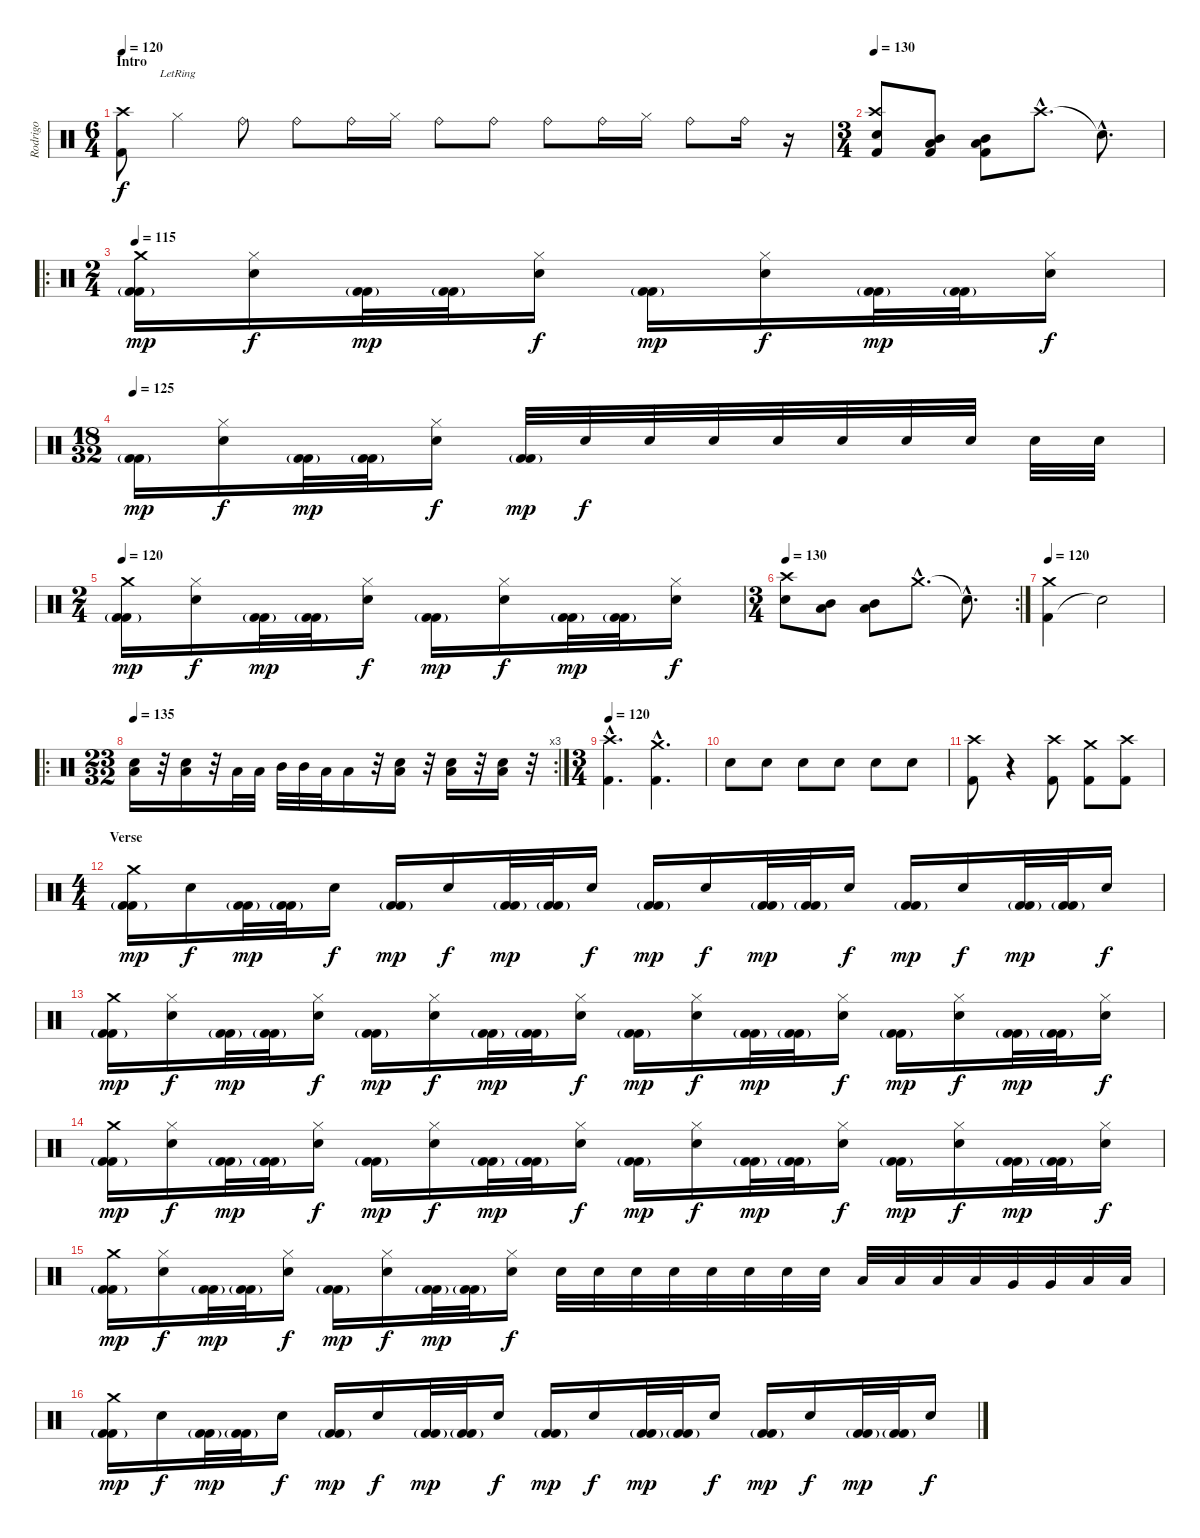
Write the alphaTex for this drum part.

\track ("Rodrigo" "Rodrigo") {instrument percussion}
\staff {score}
\articulation defaults
\ts (6 4)
\section ("" "Intro")
\tempo 120
\clef neutral
\ks c
("Kick (hit) 2" "Crash high (hit)").8{dy f} "Hi-Hat (closed)"{lr}.4 "Ride (bell)".8 "Ride (bell)".8 "Ride (bell)".16 "Hi-Hat (closed)".16 "Ride (bell)".8 "Ride (bell)".8 "Ride (bell)".8 "Ride (bell)".16 "Hi-Hat (closed)".16 "Ride (bell)".8 "Ride (bell)".16 r.16 |
\ts (3 4)
\tempo 130
("Snare (hit) 2" "Crash high (hit)" "Kick (hit) 2").8 ("Mid Tom (hit)" "Low Tom (hit)" "Kick (hit) 2").8 ("Mid Tom (hit)" "Low Tom (hit)" "Kick (hit) 2").8 "Crash high (hit)"{hac}.8{d} "Snare (hit)"{hac t}.8{d} |
\ro
\ts (2 4)
\tempo 115
("Crash medium (hit)" "Kick (hit) 2"{g} "Kick (hit) 2").16{dy mp} ("Hi-Hat (closed)" "Snare (hit) 2").16{dy f} ("Kick (hit) 2"{g} "Kick (hit) 2").32{dy mp} ("Kick (hit) 2"{g} "Kick (hit) 2").32 ("Hi-Hat (closed)" "Snare (hit) 2").16{dy f} ("Kick (hit) 2"{g} "Kick (hit) 2").16{dy mp} ("Hi-Hat (closed)" "Snare (hit) 2").16{dy f} ("Kick (hit) 2"{g} "Kick (hit) 2").32{dy mp} ("Kick (hit) 2"{g} "Kick (hit) 2").32 ("Hi-Hat (closed)" "Snare (hit) 2").16{dy f} |
\ts (18 32)
\tempo 125
("Kick (hit) 2"{g} "Kick (hit) 2").16{dy mp} ("Hi-Hat (closed)" "Snare (hit) 2").16{dy f} ("Kick (hit) 2"{g} "Kick (hit) 2").32{dy mp} ("Kick (hit) 2"{g} "Kick (hit) 2").32 ("Hi-Hat (closed)" "Snare (hit) 2").16{dy f} ("Kick (hit) 2"{g} "Kick (hit) 2").32{dy mp} "Snare (hit) 2".32{dy f} "Snare (hit) 2".32 "Snare (hit) 2".32 "Snare (hit) 2".32 "Snare (hit) 2".32 "Snare (hit) 2".32 "Snare (hit) 2".32 "Snare (hit) 2".32 "Snare (hit) 2".32 |
\ts (2 4)
\tempo 120
("Crash medium (hit)" "Kick (hit) 2"{g} "Kick (hit) 2").16{dy mp} ("Hi-Hat (closed)" "Snare (hit) 2").16{dy f} ("Kick (hit) 2"{g} "Kick (hit) 2").32{dy mp} ("Kick (hit) 2"{g} "Kick (hit) 2").32 ("Hi-Hat (closed)" "Snare (hit) 2").16{dy f} ("Kick (hit) 2"{g} "Kick (hit) 2").16{dy mp} ("Hi-Hat (closed)" "Snare (hit) 2").16{dy f} ("Kick (hit) 2"{g} "Kick (hit) 2").32{dy mp} ("Kick (hit) 2"{g} "Kick (hit) 2").32 ("Hi-Hat (closed)" "Snare (hit) 2").16{dy f} |
\rc 2
\ts (3 4)
\tempo 130
("Snare (hit) 2" "Crash high (hit)").8 ("Mid Tom (hit)" "Low Tom (hit)").8 ("Mid Tom (hit)" "Low Tom (hit)").8 "Crash medium (hit)"{hac}.8{d} "Snare (hit)"{hac t}.8{d} |
\tempo 120
("Kick (hit) 2" "Crash medium (hit)").4 "Snare (hit)"{t}.2 |
\ro
\rc 3
\ts (23 32)
\tempo 135
("Low Floor Tom (hit)" "Snare (hit) 2").16 r.32 ("Low Floor Tom (hit)" "Snare (hit) 2").16 r.32 "Low Tom (hit)".32 "Low Tom (hit)".32 "Mid Tom (hit)".32 "Mid Tom (hit)".32 "Low Tom (hit)".32 "Low Tom (hit)".16 r.32 ("Low Floor Tom (hit)" "Snare (hit) 2").16 r.32 ("Low Floor Tom (hit)" "Snare (hit) 2").16 r.32 ("Low Floor Tom (hit)" "Snare (hit) 2").16 r.32 |
\ts (3 4)
\tempo 120
("Kick (hit) 2"{hac} "Crash high (hit)"{hac}).4{d} ("Kick (hit) 2"{hac} "Crash medium (hit)"{hac}).4{d} |
"Snare (hit) 2".8 "Snare (hit) 2".8 "Snare (hit) 2".8 "Snare (hit) 2".8 "Snare (hit) 2".8 "Snare (hit) 2".8 |
("Kick (hit) 2" "Crash high (hit)").8 r.4 ("Kick (hit) 2" "Crash high (hit)").8 ("Kick (hit) 2" "Crash medium (hit)").8 ("Kick (hit) 2" "Crash high (hit)").8 |
\ts (4 4)
\section ("" "Verse")
("Crash medium (hit)" "Kick (hit) 2"{g} "Kick (hit) 2").16{dy mp} "Snare (hit) 2".16{dy f} ("Kick (hit) 2"{g} "Kick (hit) 2").32{dy mp} ("Kick (hit) 2"{g} "Kick (hit) 2").32 "Snare (hit) 2".16{dy f} ("Kick (hit) 2"{g} "Kick (hit) 2").16{dy mp} "Snare (hit) 2".16{dy f} ("Kick (hit) 2"{g} "Kick (hit) 2").32{dy mp} ("Kick (hit) 2"{g} "Kick (hit) 2").32 "Snare (hit) 2".16{dy f} ("Kick (hit) 2"{g} "Kick (hit) 2").16{dy mp} "Snare (hit) 2".16{dy f} ("Kick (hit) 2"{g} "Kick (hit) 2").32{dy mp} ("Kick (hit) 2"{g} "Kick (hit) 2").32 "Snare (hit) 2".16{dy f} ("Kick (hit) 2"{g} "Kick (hit) 2").16{dy mp} "Snare (hit) 2".16{dy f} ("Kick (hit) 2"{g} "Kick (hit) 2").32{dy mp} ("Kick (hit) 2"{g} "Kick (hit) 2").32 "Snare (hit) 2".16{dy f} |
("Crash medium (hit)" "Kick (hit) 2"{g} "Kick (hit) 2").16{dy mp} ("Hi-Hat (closed)" "Snare (hit) 2").16{dy f} ("Kick (hit) 2"{g} "Kick (hit) 2").32{dy mp} ("Kick (hit) 2"{g} "Kick (hit) 2").32 ("Hi-Hat (closed)" "Snare (hit) 2").16{dy f} ("Kick (hit) 2"{g} "Kick (hit) 2").16{dy mp} ("Hi-Hat (closed)" "Snare (hit) 2").16{dy f} ("Kick (hit) 2"{g} "Kick (hit) 2").32{dy mp} ("Kick (hit) 2"{g} "Kick (hit) 2").32 ("Hi-Hat (closed)" "Snare (hit) 2").16{dy f} ("Kick (hit) 2"{g} "Kick (hit) 2").16{dy mp} ("Hi-Hat (closed)" "Snare (hit) 2").16{dy f} ("Kick (hit) 2"{g} "Kick (hit) 2").32{dy mp} ("Kick (hit) 2"{g} "Kick (hit) 2").32 ("Hi-Hat (closed)" "Snare (hit) 2").16{dy f} ("Kick (hit) 2"{g} "Kick (hit) 2").16{dy mp} ("Hi-Hat (closed)" "Snare (hit) 2").16{dy f} ("Kick (hit) 2"{g} "Kick (hit) 2").32{dy mp} ("Kick (hit) 2"{g} "Kick (hit) 2").32 ("Hi-Hat (closed)" "Snare (hit) 2").16{dy f} |
("Crash medium (hit)" "Kick (hit) 2"{g} "Kick (hit) 2").16{dy mp} ("Hi-Hat (closed)" "Snare (hit) 2").16{dy f} ("Kick (hit) 2"{g} "Kick (hit) 2").32{dy mp} ("Kick (hit) 2"{g} "Kick (hit) 2").32 ("Hi-Hat (closed)" "Snare (hit) 2").16{dy f} ("Kick (hit) 2"{g} "Kick (hit) 2").16{dy mp} ("Hi-Hat (closed)" "Snare (hit) 2").16{dy f} ("Kick (hit) 2"{g} "Kick (hit) 2").32{dy mp} ("Kick (hit) 2"{g} "Kick (hit) 2").32 ("Hi-Hat (closed)" "Snare (hit) 2").16{dy f} ("Kick (hit) 2"{g} "Kick (hit) 2").16{dy mp} ("Hi-Hat (closed)" "Snare (hit) 2").16{dy f} ("Kick (hit) 2"{g} "Kick (hit) 2").32{dy mp} ("Kick (hit) 2"{g} "Kick (hit) 2").32 ("Hi-Hat (closed)" "Snare (hit) 2").16{dy f} ("Kick (hit) 2"{g} "Kick (hit) 2").16{dy mp} ("Hi-Hat (closed)" "Snare (hit) 2").16{dy f} ("Kick (hit) 2"{g} "Kick (hit) 2").32{dy mp} ("Kick (hit) 2"{g} "Kick (hit) 2").32 ("Hi-Hat (closed)" "Snare (hit) 2").16{dy f} |
("Crash medium (hit)" "Kick (hit) 2"{g} "Kick (hit) 2").16{dy mp} ("Hi-Hat (closed)" "Snare (hit) 2").16{dy f} ("Kick (hit) 2"{g} "Kick (hit) 2").32{dy mp} ("Kick (hit) 2"{g} "Kick (hit) 2").32 ("Hi-Hat (closed)" "Snare (hit) 2").16{dy f} ("Kick (hit) 2"{g} "Kick (hit) 2").16{dy mp} ("Hi-Hat (closed)" "Snare (hit) 2").16{dy f} ("Kick (hit) 2"{g} "Kick (hit) 2").32{dy mp} ("Kick (hit) 2"{g} "Kick (hit) 2").32 ("Hi-Hat (closed)" "Snare (hit) 2").16{dy f} "Snare (hit) 2".32 "Snare (hit) 2".32 "Snare (hit) 2".32 "Snare (hit) 2".32 "Snare (hit) 2".32 "Snare (hit) 2".32 "Snare (hit) 2".32 "Snare (hit) 2".32 "Low Tom (hit)".32 "Low Tom (hit)".32 "Low Tom (hit)".32 "Low Tom (hit)".32 "Very Low Tom (hit)".32 "Very Low Tom (hit)".32 "Low Floor Tom (hit)".32 "Low Floor Tom (hit)".32 |
("Crash medium (hit)" "Kick (hit) 2"{g} "Kick (hit) 2").16{dy mp} "Snare (hit) 2".16{dy f} ("Kick (hit) 2"{g} "Kick (hit) 2").32{dy mp} ("Kick (hit) 2"{g} "Kick (hit) 2").32 "Snare (hit) 2".16{dy f} ("Kick (hit) 2"{g} "Kick (hit) 2").16{dy mp} "Snare (hit) 2".16{dy f} ("Kick (hit) 2"{g} "Kick (hit) 2").32{dy mp} ("Kick (hit) 2"{g} "Kick (hit) 2").32 "Snare (hit) 2".16{dy f} ("Kick (hit) 2"{g} "Kick (hit) 2").16{dy mp} "Snare (hit) 2".16{dy f} ("Kick (hit) 2"{g} "Kick (hit) 2").32{dy mp} ("Kick (hit) 2"{g} "Kick (hit) 2").32 "Snare (hit) 2".16{dy f} ("Kick (hit) 2"{g} "Kick (hit) 2").16{dy mp} "Snare (hit) 2".16{dy f} ("Kick (hit) 2"{g} "Kick (hit) 2").32{dy mp} ("Kick (hit) 2"{g} "Kick (hit) 2").32 "Snare (hit) 2".16{dy f}
